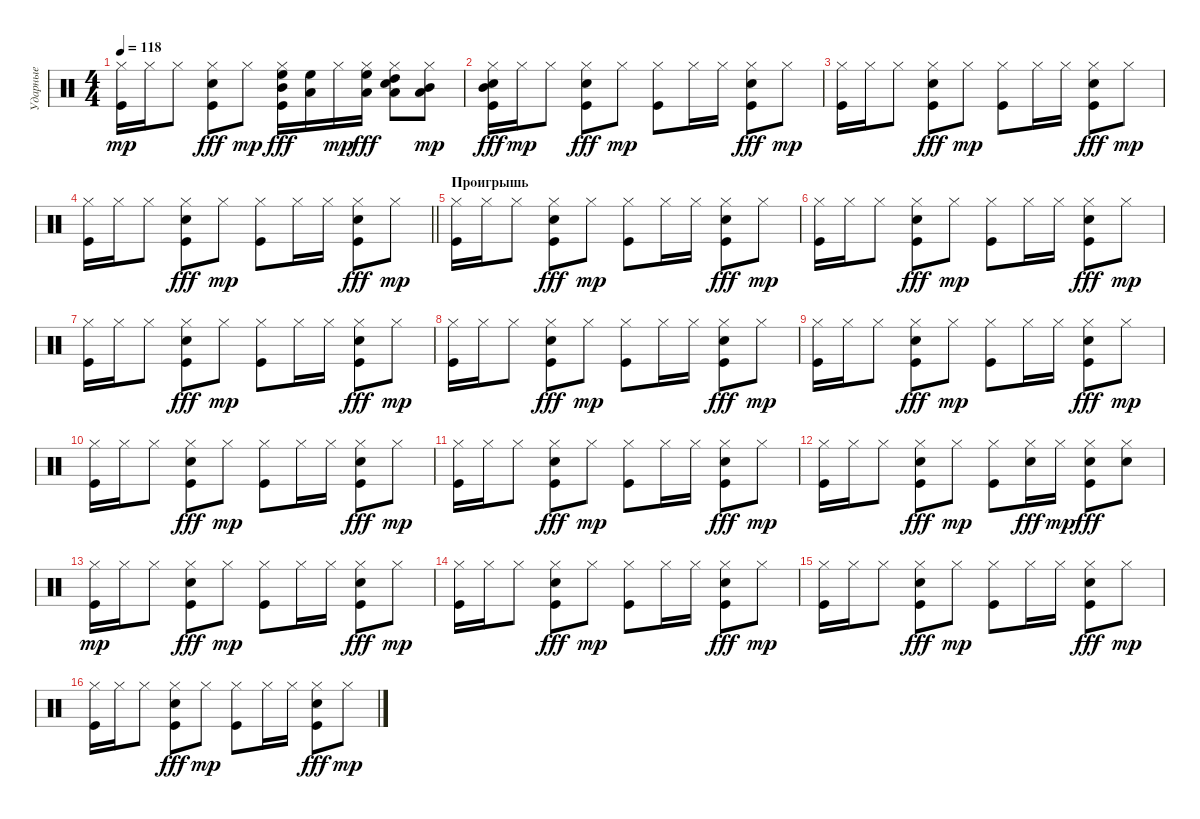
\track ("Ударные" "Ударные") {instrument percussion}
\staff {score}
\articulation defaults
\ts (4 4)
\tempo 118
\clef neutral
\ks c
("Kick (hit)" "Hi-Hat (closed)").16{dy mp} "Hi-Hat (closed)".16 "Hi-Hat (closed)".8 ("Kick (hit)" "Hi-Hat (closed)" "Electric Snare (hit)").8{dy fff} "Hi-Hat (closed)".8{dy mp} ("Kick (hit)" "Hi-Hat (closed)" "Mid Tom (hit)" "High Floor Tom (hit)").16{dy fff} ("Low Tom (hit)" "High Floor Tom (hit)").16 "Hi-Hat (closed)".16{dy mp} ("Hi-Hat (closed)" "Low Tom (hit)" "High Floor Tom (hit)").16{dy fff} ("High Tom (hit)" "Low Tom (hit)" "Hi-Hat (closed)" "Electric Snare (hit)").8 ("Low Tom (hit)" "Mid Tom (hit)" "Hi-Hat (closed)").8{dy mp} |
("Kick (hit)" "Hi-Hat (closed)" "Snare (hit) 2" "Mid Tom (hit)").16{dy fff} "Hi-Hat (closed)".16{dy mp} "Hi-Hat (closed)".8 ("Kick (hit)" "Hi-Hat (closed)" "Electric Snare (hit)").8{dy fff} "Hi-Hat (closed)".8{dy mp} ("Kick (hit)" "Hi-Hat (closed)").8 "Hi-Hat (closed)".16 "Hi-Hat (closed)".16 ("Hi-Hat (closed)" "Kick (hit)" "Electric Snare (hit)").8{dy fff} "Hi-Hat (closed)".8{dy mp} |
("Kick (hit)" "Hi-Hat (closed)").16 "Hi-Hat (closed)".16 "Hi-Hat (closed)".8 ("Kick (hit)" "Hi-Hat (closed)" "Electric Snare (hit)").8{dy fff} "Hi-Hat (closed)".8{dy mp} ("Kick (hit)" "Hi-Hat (closed)").8 "Hi-Hat (closed)".16 "Hi-Hat (closed)".16 ("Hi-Hat (closed)" "Kick (hit)" "Electric Snare (hit)").8{dy fff} "Hi-Hat (closed)".8{dy mp} |
\barLineRight lightlight
("Kick (hit)" "Hi-Hat (closed)").16 "Hi-Hat (closed)".16 "Hi-Hat (closed)".8 ("Kick (hit)" "Hi-Hat (closed)" "Electric Snare (hit)").8{dy fff} "Hi-Hat (closed)".8{dy mp} ("Kick (hit)" "Hi-Hat (closed)").8 "Hi-Hat (closed)".16 "Hi-Hat (closed)".16 ("Hi-Hat (closed)" "Kick (hit)" "Electric Snare (hit)").8{dy fff} "Hi-Hat (closed)".8{dy mp} |
\section ("" "Проигрышь")
("Kick (hit)" "Hi-Hat (closed)").16 "Hi-Hat (closed)".16 "Hi-Hat (closed)".8 ("Kick (hit)" "Hi-Hat (closed)" "Electric Snare (hit)").8{dy fff} "Hi-Hat (closed)".8{dy mp} ("Kick (hit)" "Hi-Hat (closed)").8 "Hi-Hat (closed)".16 "Hi-Hat (closed)".16 ("Hi-Hat (closed)" "Kick (hit)" "Electric Snare (hit)").8{dy fff} "Hi-Hat (closed)".8{dy mp} |
("Kick (hit)" "Hi-Hat (closed)").16 "Hi-Hat (closed)".16 "Hi-Hat (closed)".8 ("Kick (hit)" "Hi-Hat (closed)" "Electric Snare (hit)").8{dy fff} "Hi-Hat (closed)".8{dy mp} ("Kick (hit)" "Hi-Hat (closed)").8 "Hi-Hat (closed)".16 "Hi-Hat (closed)".16 ("Hi-Hat (closed)" "Kick (hit)" "Electric Snare (hit)").8{dy fff} "Hi-Hat (closed)".8{dy mp} |
("Kick (hit)" "Hi-Hat (closed)").16 "Hi-Hat (closed)".16 "Hi-Hat (closed)".8 ("Kick (hit)" "Hi-Hat (closed)" "Electric Snare (hit)").8{dy fff} "Hi-Hat (closed)".8{dy mp} ("Kick (hit)" "Hi-Hat (closed)").8 "Hi-Hat (closed)".16 "Hi-Hat (closed)".16 ("Hi-Hat (closed)" "Kick (hit)" "Electric Snare (hit)").8{dy fff} "Hi-Hat (closed)".8{dy mp} |
("Kick (hit)" "Hi-Hat (closed)").16 "Hi-Hat (closed)".16 "Hi-Hat (closed)".8 ("Kick (hit)" "Hi-Hat (closed)" "Electric Snare (hit)").8{dy fff} "Hi-Hat (closed)".8{dy mp} ("Kick (hit)" "Hi-Hat (closed)").8 "Hi-Hat (closed)".16 "Hi-Hat (closed)".16 ("Hi-Hat (closed)" "Kick (hit)" "Electric Snare (hit)").8{dy fff} "Hi-Hat (closed)".8{dy mp} |
("Kick (hit)" "Hi-Hat (closed)").16 "Hi-Hat (closed)".16 "Hi-Hat (closed)".8 ("Kick (hit)" "Hi-Hat (closed)" "Electric Snare (hit)").8{dy fff} "Hi-Hat (closed)".8{dy mp} ("Kick (hit)" "Hi-Hat (closed)").8 "Hi-Hat (closed)".16 "Hi-Hat (closed)".16 ("Hi-Hat (closed)" "Kick (hit)" "Electric Snare (hit)").8{dy fff} "Hi-Hat (closed)".8{dy mp} |
("Kick (hit)" "Hi-Hat (closed)").16 "Hi-Hat (closed)".16 "Hi-Hat (closed)".8 ("Kick (hit)" "Hi-Hat (closed)" "Electric Snare (hit)").8{dy fff} "Hi-Hat (closed)".8{dy mp} ("Kick (hit)" "Hi-Hat (closed)").8 "Hi-Hat (closed)".16 "Hi-Hat (closed)".16 ("Hi-Hat (closed)" "Kick (hit)" "Electric Snare (hit)").8{dy fff} "Hi-Hat (closed)".8{dy mp} |
("Kick (hit)" "Hi-Hat (closed)").16 "Hi-Hat (closed)".16 "Hi-Hat (closed)".8 ("Kick (hit)" "Hi-Hat (closed)" "Electric Snare (hit)").8{dy fff} "Hi-Hat (closed)".8{dy mp} ("Kick (hit)" "Hi-Hat (closed)").8 "Hi-Hat (closed)".16 "Hi-Hat (closed)".16 ("Hi-Hat (closed)" "Kick (hit)" "Electric Snare (hit)").8{dy fff} "Hi-Hat (closed)".8{dy mp} |
("Kick (hit)" "Hi-Hat (closed)").16 "Hi-Hat (closed)".16 "Hi-Hat (closed)".8 ("Kick (hit)" "Hi-Hat (closed)" "Electric Snare (hit)").8{dy fff} "Hi-Hat (closed)".8{dy mp} ("Kick (hit)" "Hi-Hat (closed)").8 ("Hi-Hat (closed)" "Electric Snare (hit)").16{dy fff} "Hi-Hat (closed)".16{dy mp} ("Hi-Hat (closed)" "Kick (hit)" "Electric Snare (hit)").8{dy fff} ("Hi-Hat (closed)" "Electric Snare (hit)").8 |
("Kick (hit)" "Hi-Hat (closed)").16{dy mp} "Hi-Hat (closed)".16 "Hi-Hat (closed)".8 ("Kick (hit)" "Hi-Hat (closed)" "Electric Snare (hit)").8{dy fff} "Hi-Hat (closed)".8{dy mp} ("Kick (hit)" "Hi-Hat (closed)").8 "Hi-Hat (closed)".16 "Hi-Hat (closed)".16 ("Hi-Hat (closed)" "Kick (hit)" "Electric Snare (hit)").8{dy fff} "Hi-Hat (closed)".8{dy mp} |
("Kick (hit)" "Hi-Hat (closed)").16 "Hi-Hat (closed)".16 "Hi-Hat (closed)".8 ("Kick (hit)" "Hi-Hat (closed)" "Electric Snare (hit)").8{dy fff} "Hi-Hat (closed)".8{dy mp} ("Kick (hit)" "Hi-Hat (closed)").8 "Hi-Hat (closed)".16 "Hi-Hat (closed)".16 ("Hi-Hat (closed)" "Kick (hit)" "Electric Snare (hit)").8{dy fff} "Hi-Hat (closed)".8{dy mp} |
("Kick (hit)" "Hi-Hat (closed)").16 "Hi-Hat (closed)".16 "Hi-Hat (closed)".8 ("Kick (hit)" "Hi-Hat (closed)" "Electric Snare (hit)").8{dy fff} "Hi-Hat (closed)".8{dy mp} ("Kick (hit)" "Hi-Hat (closed)").8 "Hi-Hat (closed)".16 "Hi-Hat (closed)".16 ("Hi-Hat (closed)" "Kick (hit)" "Electric Snare (hit)").8{dy fff} "Hi-Hat (closed)".8{dy mp} |
("Kick (hit)" "Hi-Hat (closed)").16 "Hi-Hat (closed)".16 "Hi-Hat (closed)".8 ("Kick (hit)" "Hi-Hat (closed)" "Electric Snare (hit)").8{dy fff} "Hi-Hat (closed)".8{dy mp} ("Kick (hit)" "Hi-Hat (closed)").8 "Hi-Hat (closed)".16 "Hi-Hat (closed)".16 ("Hi-Hat (closed)" "Kick (hit)" "Electric Snare (hit)").8{dy fff} "Hi-Hat (closed)".8{dy mp}
